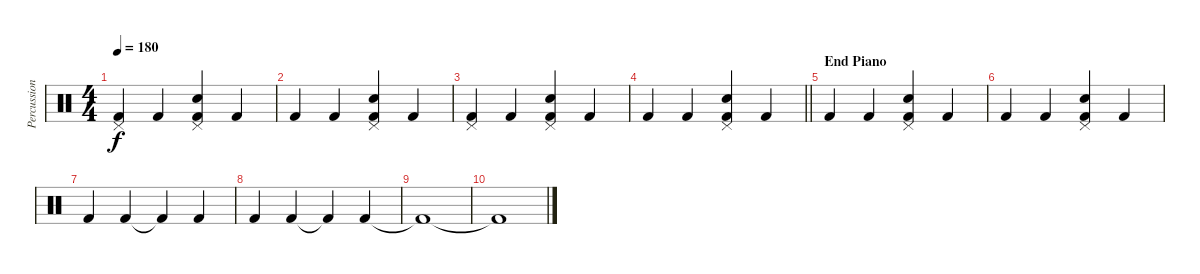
\track ("Percussion" "Percussion") {instrument percussion}
\staff {score}
\articulation defaults
\ts (4 4)
\tempo 180
\clef neutral
\ks c
("Kick (hit) 2" "Pedal Hi-Hat (hit)").4{dy f} "Kick (hit) 2".4 ("Kick (hit) 2" "Snare (hit) 2" "Pedal Hi-Hat (hit)").4 "Kick (hit) 2".4 |
"Kick (hit) 2".4 "Kick (hit) 2".4 ("Kick (hit) 2" "Snare (hit) 2" "Pedal Hi-Hat (hit)").4 "Kick (hit) 2".4 |
("Kick (hit) 2" "Pedal Hi-Hat (hit)").4 "Kick (hit) 2".4 ("Kick (hit) 2" "Snare (hit) 2" "Pedal Hi-Hat (hit)").4 "Kick (hit) 2".4 |
\barLineRight lightlight "Kick (hit) 2".4 "Kick (hit) 2".4
("Kick (hit) 2" "Snare (hit) 2" "Pedal Hi-Hat (hit)").4 "Kick (hit) 2".4 |
\section ("" "End Piano")
"Kick (hit) 2".4 "Kick (hit) 2".4 ("Kick (hit) 2" "Snare (hit) 2" "Pedal Hi-Hat (hit)").4 "Kick (hit) 2".4 |
"Kick (hit) 2".4 "Kick (hit) 2".4 ("Kick (hit) 2" "Snare (hit) 2" "Pedal Hi-Hat (hit)").4 "Kick (hit) 2".4 |
"Kick (hit) 2".4 "Kick (hit) 2".4 "Kick (hit) 2"{t}.4 "Kick (hit) 2".4 |
"Kick (hit) 2".4 "Kick (hit) 2".4 "Kick (hit) 2"{t}.4 "Kick (hit) 2".4 |
"Kick (hit) 2"{t}.1 |
"Kick (hit) 2"{t}.1
